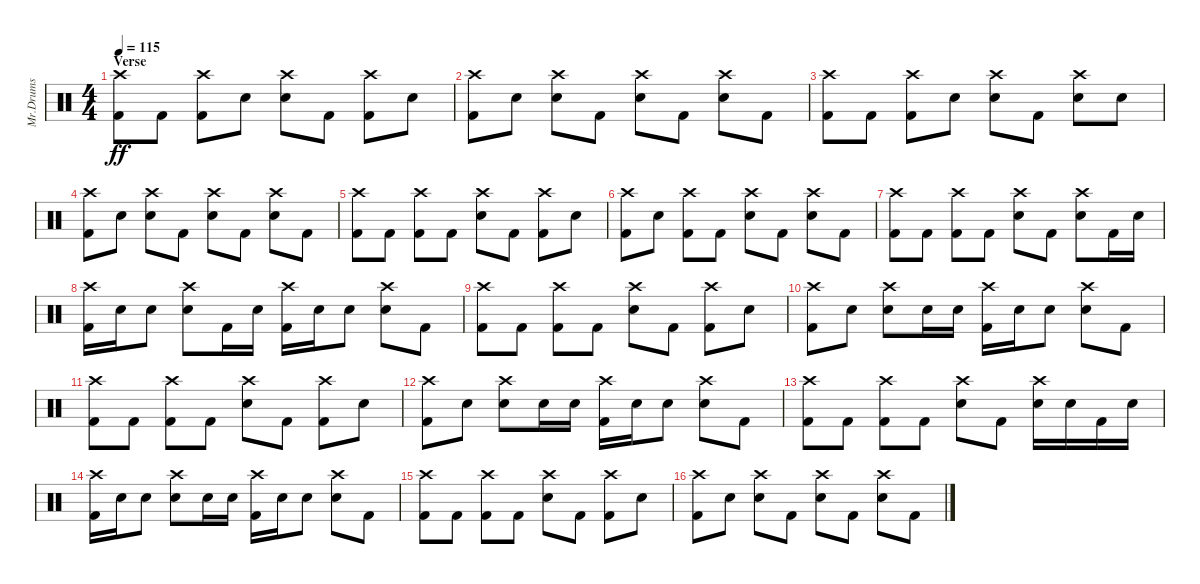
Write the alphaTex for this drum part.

\track ("Mr.Drums" "Mr.Drums") {instrument percussion}
\staff {score}
\articulation defaults
\ts (4 4)
\section ("" "Verse")
\tempo 115
\clef neutral
\ks c
("Crash high (hit)" "Kick (hit) 2").8{dy ff} "Kick (hit) 2".8 ("Crash high (hit)" "Kick (hit) 2").8 "Electric Snare (hit)".8 ("Crash high (hit)" "Electric Snare (hit)").8 "Kick (hit) 2".8 ("Crash high (hit)" "Kick (hit) 2").8 "Electric Snare (hit)".8 |
("Crash high (hit)" "Kick (hit) 2").8 "Electric Snare (hit)".8 ("Crash high (hit)" "Electric Snare (hit)").8 "Kick (hit) 2".8 ("Crash high (hit)" "Electric Snare (hit)").8 "Kick (hit) 2".8 ("Crash high (hit)" "Electric Snare (hit)").8 "Kick (hit) 2".8 |
("Crash high (hit)" "Kick (hit) 2").8 "Kick (hit) 2".8 ("Crash high (hit)" "Kick (hit) 2").8 "Electric Snare (hit)".8 ("Crash high (hit)" "Electric Snare (hit)").8 "Kick (hit) 2".8 ("Crash high (hit)" "Electric Snare (hit)").8 "Electric Snare (hit)".8 |
("Crash high (hit)" "Kick (hit) 2").8 "Electric Snare (hit)".8 ("Crash high (hit)" "Electric Snare (hit)").8 "Kick (hit) 2".8 ("Crash high (hit)" "Electric Snare (hit)").8 "Kick (hit) 2".8 ("Crash high (hit)" "Electric Snare (hit)").8 "Kick (hit) 2".8 |
("Crash high (hit)" "Kick (hit) 2").8 "Kick (hit) 2".8 ("Crash high (hit)" "Kick (hit) 2").8 "Kick (hit) 2".8 ("Crash high (hit)" "Electric Snare (hit)").8 "Kick (hit) 2".8 ("Crash high (hit)" "Kick (hit) 2").8 "Electric Snare (hit)".8 |
("Crash high (hit)" "Kick (hit) 2").8 "Electric Snare (hit)".8 ("Crash high (hit)" "Kick (hit) 2").8 "Kick (hit) 2".8 ("Crash high (hit)" "Electric Snare (hit)").8 "Kick (hit) 2".8 ("Crash high (hit)" "Electric Snare (hit)").8 "Kick (hit) 2".8 |
("Crash high (hit)" "Kick (hit) 2").8 "Kick (hit) 2".8 ("Crash high (hit)" "Kick (hit) 2").8 "Kick (hit) 2".8 ("Crash high (hit)" "Electric Snare (hit)").8 "Kick (hit) 2".8 ("Crash high (hit)" "Electric Snare (hit)").8 "Kick (hit) 2".16 "Electric Snare (hit)".16 |
("Crash high (hit)" "Kick (hit) 2").16 "Electric Snare (hit)".16 "Electric Snare (hit)".8 ("Crash high (hit)" "Electric Snare (hit)").8 "Kick (hit) 2".16 "Electric Snare (hit)".16 ("Crash high (hit)" "Kick (hit) 2").16 "Electric Snare (hit)".16 "Electric Snare (hit)".8 ("Crash high (hit)" "Electric Snare (hit)").8 "Kick (hit) 2".8 |
("Crash high (hit)" "Kick (hit) 2").8 "Kick (hit) 2".8 ("Crash high (hit)" "Kick (hit) 2").8 "Kick (hit) 2".8 ("Crash high (hit)" "Electric Snare (hit)").8 "Kick (hit) 2".8 ("Crash high (hit)" "Kick (hit) 2").8 "Electric Snare (hit)".8 |
("Crash high (hit)" "Kick (hit) 2").8 "Electric Snare (hit)".8 ("Crash high (hit)" "Electric Snare (hit)").8 "Electric Snare (hit)".16 "Electric Snare (hit)".16 ("Crash high (hit)" "Kick (hit) 2").16 "Electric Snare (hit)".16 "Electric Snare (hit)".8 ("Crash high (hit)" "Electric Snare (hit)").8 "Kick (hit) 2".8 |
("Crash high (hit)" "Kick (hit) 2").8 "Kick (hit) 2".8 ("Crash high (hit)" "Kick (hit) 2").8 "Kick (hit) 2".8 ("Crash high (hit)" "Electric Snare (hit)").8 "Kick (hit) 2".8 ("Crash high (hit)" "Kick (hit) 2").8 "Electric Snare (hit)".8 |
("Crash high (hit)" "Kick (hit) 2").8 "Electric Snare (hit)".8 ("Crash high (hit)" "Electric Snare (hit)").8 "Electric Snare (hit)".16 "Electric Snare (hit)".16 ("Crash high (hit)" "Kick (hit) 2").16 "Electric Snare (hit)".16 "Electric Snare (hit)".8 ("Crash high (hit)" "Electric Snare (hit)").8 "Kick (hit) 2".8 |
("Crash high (hit)" "Kick (hit) 2").8 "Kick (hit) 2".8 ("Crash high (hit)" "Kick (hit) 2").8 "Kick (hit) 2".8 ("Crash high (hit)" "Electric Snare (hit)").8 "Kick (hit) 2".8 ("Crash high (hit)" "Electric Snare (hit)").16 "Electric Snare (hit)".16 "Kick (hit) 2".16 "Electric Snare (hit)".16 |
("Crash high (hit)" "Kick (hit) 2").16 "Electric Snare (hit)".16 "Electric Snare (hit)".8 ("Crash high (hit)" "Electric Snare (hit)").8 "Electric Snare (hit)".16 "Electric Snare (hit)".16 ("Crash high (hit)" "Kick (hit) 2").16 "Electric Snare (hit)".16 "Electric Snare (hit)".8 ("Crash high (hit)" "Electric Snare (hit)").8 "Kick (hit) 2".8 |
("Crash high (hit)" "Kick (hit) 2").8 "Kick (hit) 2".8 ("Crash high (hit)" "Kick (hit) 2").8 "Kick (hit) 2".8 ("Crash high (hit)" "Electric Snare (hit)").8 "Kick (hit) 2".8 ("Crash high (hit)" "Kick (hit) 2").8 "Electric Snare (hit)".8 |
("Crash high (hit)" "Kick (hit) 2").8 "Electric Snare (hit)".8 ("Crash high (hit)" "Electric Snare (hit)").8 "Kick (hit) 2".8 ("Crash high (hit)" "Electric Snare (hit)").8 "Kick (hit) 2".8 ("Crash high (hit)" "Electric Snare (hit)").8 "Kick (hit) 2".8
